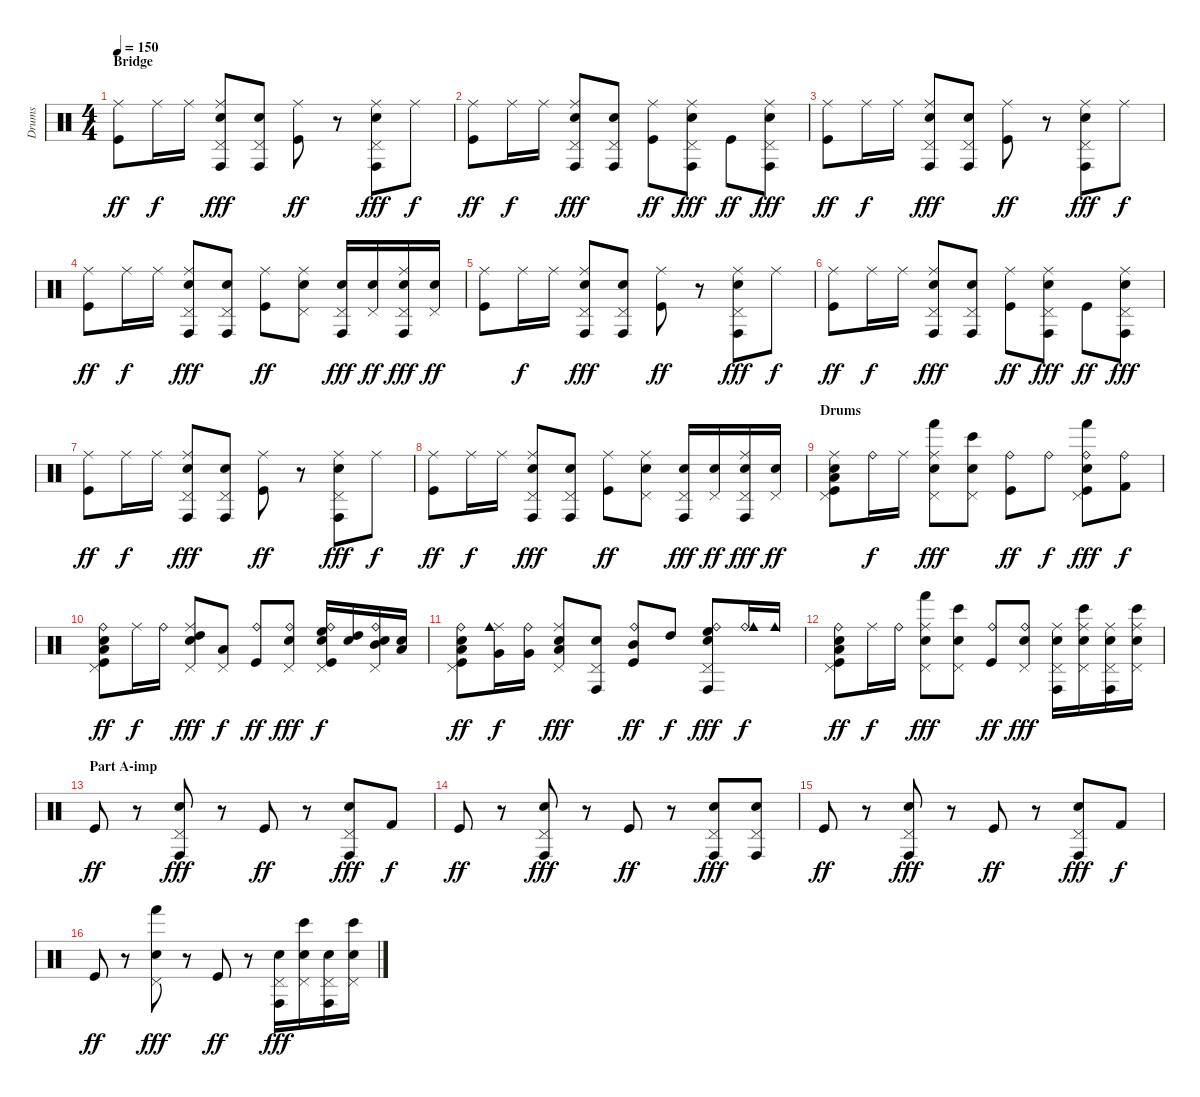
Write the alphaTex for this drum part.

\track ("Drums" "Drums") {instrument percussion}
\staff {score}
\articulation defaults
\ts (4 4)
\section ("" "Bridge")
\tempo 150
\clef neutral
\ks c
("Ride (middle)" "Kick (hit)").8{dy ff} "Ride (middle)".16{dy f} "Ride (middle)".16 ("Ride (middle)" "Pedal Hi-Hat (hit)" "Conga high (hit)" "Electric Snare (hit)").8{dy fff} ("Pedal Hi-Hat (hit)" "Conga high (hit)" "Electric Snare (hit)").8 ("Ride (middle)" "Kick (hit)").8{dy ff} r.8 ("Ride (middle)" "Pedal Hi-Hat (hit)" "Conga high (hit)" "Electric Snare (hit)").8{dy fff} "Ride (middle)".8{dy f} |
("Ride (middle)" "Kick (hit)").8{dy ff} "Ride (middle)".16{dy f} "Ride (middle)".16 ("Ride (middle)" "Pedal Hi-Hat (hit)" "Conga high (hit)" "Electric Snare (hit)").8{dy fff} ("Pedal Hi-Hat (hit)" "Conga high (hit)" "Electric Snare (hit)").8 ("Ride (middle)" "Kick (hit)").8{dy ff} ("Ride (middle)" "Pedal Hi-Hat (hit)" "Conga high (hit)" "Electric Snare (hit)").8{dy fff} "Kick (hit)".8{dy ff} ("Ride (middle)" "Pedal Hi-Hat (hit)" "Conga high (hit)" "Electric Snare (hit)").8{dy fff} |
("Ride (middle)" "Kick (hit)").8{dy ff} "Ride (middle)".16{dy f} "Ride (middle)".16 ("Ride (middle)" "Pedal Hi-Hat (hit)" "Conga high (hit)" "Electric Snare (hit)").8{dy fff} ("Pedal Hi-Hat (hit)" "Conga high (hit)" "Electric Snare (hit)").8 ("Ride (middle)" "Kick (hit)").8{dy ff} r.8 ("Ride (middle)" "Pedal Hi-Hat (hit)" "Conga high (hit)" "Electric Snare (hit)").8{dy fff} "Ride (middle)".8{dy f} |
("Ride (middle)" "Kick (hit)").8{dy ff} "Ride (middle)".16{dy f} "Ride (middle)".16 ("Ride (middle)" "Pedal Hi-Hat (hit)" "Conga high (hit)" "Electric Snare (hit)").8{dy fff} ("Pedal Hi-Hat (hit)" "Conga high (hit)" "Electric Snare (hit)").8 ("Ride (middle)" "Kick (hit)").8{dy ff} ("Ride (middle)" "Pedal Hi-Hat (hit)" "Electric Snare (hit)").8 ("Pedal Hi-Hat (hit)" "Conga high (hit)" "Electric Snare (hit)").16{dy fff} ("Pedal Hi-Hat (hit)" "Electric Snare (hit)").16{dy ff} ("Ride (middle)" "Pedal Hi-Hat (hit)" "Conga high (hit)" "Electric Snare (hit)").16{dy fff} ("Pedal Hi-Hat (hit)" "Electric Snare (hit)").16{dy ff} |
("Ride (middle)" "Kick (hit)").8 "Ride (middle)".16{dy f} "Ride (middle)".16 ("Ride (middle)" "Pedal Hi-Hat (hit)" "Conga high (hit)" "Electric Snare (hit)").8{dy fff} ("Pedal Hi-Hat (hit)" "Conga high (hit)" "Electric Snare (hit)").8 ("Ride (middle)" "Kick (hit)").8{dy ff} r.8 ("Ride (middle)" "Pedal Hi-Hat (hit)" "Conga high (hit)" "Electric Snare (hit)").8{dy fff} "Ride (middle)".8{dy f} |
("Ride (middle)" "Kick (hit)").8{dy ff} "Ride (middle)".16{dy f} "Ride (middle)".16 ("Ride (middle)" "Pedal Hi-Hat (hit)" "Conga high (hit)" "Electric Snare (hit)").8{dy fff} ("Pedal Hi-Hat (hit)" "Conga high (hit)" "Electric Snare (hit)").8 ("Ride (middle)" "Kick (hit)").8{dy ff} ("Ride (middle)" "Pedal Hi-Hat (hit)" "Conga high (hit)" "Electric Snare (hit)").8{dy fff} "Kick (hit)".8{dy ff} ("Ride (middle)" "Pedal Hi-Hat (hit)" "Conga high (hit)" "Electric Snare (hit)").8{dy fff} |
("Ride (middle)" "Kick (hit)").8{dy ff} "Ride (middle)".16{dy f} "Ride (middle)".16 ("Ride (middle)" "Pedal Hi-Hat (hit)" "Conga high (hit)" "Electric Snare (hit)").8{dy fff} ("Pedal Hi-Hat (hit)" "Conga high (hit)" "Electric Snare (hit)").8 ("Ride (middle)" "Kick (hit)").8{dy ff} r.8 ("Ride (middle)" "Pedal Hi-Hat (hit)" "Conga high (hit)" "Electric Snare (hit)").8{dy fff} "Ride (middle)".8{dy f} |
("Ride (middle)" "Kick (hit)").8{dy ff} "Ride (middle)".16{dy f} "Ride (middle)".16 ("Ride (middle)" "Pedal Hi-Hat (hit)" "Conga high (hit)" "Electric Snare (hit)").8{dy fff} ("Pedal Hi-Hat (hit)" "Conga high (hit)" "Electric Snare (hit)").8 ("Ride (middle)" "Kick (hit)").8{dy ff} ("Ride (middle)" "Pedal Hi-Hat (hit)" "Electric Snare (hit)").8 ("Pedal Hi-Hat (hit)" "Conga high (hit)" "Electric Snare (hit)").16{dy fff} ("Pedal Hi-Hat (hit)" "Electric Snare (hit)").16{dy ff} ("Ride (middle)" "Pedal Hi-Hat (hit)" "Conga high (hit)" "Electric Snare (hit)").16{dy fff} ("Pedal Hi-Hat (hit)" "Electric Snare (hit)").16{dy ff} |
\section ("" "Drums")
("Ride (middle)" "Pedal Hi-Hat (hit)" "Low Floor Tom (hit)" "Electric Snare (hit)" "Kick (hit)").8 "Ride (bell)".16{dy f} "Ride (middle)".16 ("Ride (middle)" "Pedal Hi-Hat (hit)" "Hand (hit)" "Electric Snare (hit)").8{dy fff} ("Pedal Hi-Hat (hit)" "Bongo High (hit)" "Electric Snare (hit)").8 ("Ride (bell)" "Kick (hit)").8{dy ff} "Ride (bell)".8{dy f} ("Ride (bell)" "Pedal Hi-Hat (hit)" "Hand (hit)" "Electric Snare (hit)" "Kick (hit)").8{dy fff} ("Ride (bell)" "Kick (hit) 2").8{dy f} |
("Ride (bell)" "Pedal Hi-Hat (hit)" "Low Floor Tom (hit)" "Electric Snare (hit)" "Kick (hit)").8{dy ff} "Ride (middle)".16{dy f} "Ride (bell)".16 ("Ride (middle)" "Pedal Hi-Hat (hit)" "High Tom (hit)" "Electric Snare (hit)").8{dy fff} ("Pedal Hi-Hat (hit)" "Low Tom (hit)").8{dy f} ("Ride (bell)" "Kick (hit)").8{dy ff} ("Ride (bell)" "Pedal Hi-Hat (hit)" "Electric Snare (hit)").8{dy fff} ("Ride (bell)" "Pedal Hi-Hat (hit)" "High Floor Tom (hit)" "Electric Snare (hit)" "Kick (hit)").16{dy f} ("High Tom (hit)" "Electric Snare (hit)").16 ("Ride (bell)" "Pedal Hi-Hat (hit)" "Mid Tom (hit)" "Electric Snare (hit)").16 ("Low Tom (hit)" "Electric Snare (hit)").16 |
("Ride (bell)" "Pedal Hi-Hat (hit)" "Low Floor Tom (hit)" "Electric Snare (hit)" "Kick (hit)").8{dy ff} ("Ride (middle)" "Very Low Tom (hit)" "Cowbell medium (hit)").16{dy f} ("Ride (bell)" "Very Low Tom (hit)").16 ("Ride (middle)" "Pedal Hi-Hat (hit)" "Low Tom (hit)" "Electric Snare (hit)").8{dy fff} ("Pedal Hi-Hat (hit)" "Conga high (hit)" "Electric Snare (hit)").8 ("Ride (bell)" "Mid Tom (hit)" "Kick (hit)").8{dy ff} "High Tom (hit)".8{dy f} ("Ride (bell)" "Pedal Hi-Hat (hit)" "High Floor Tom (hit)" "Conga high (hit)" "Electric Snare (hit)").8{dy fff} ("Ride (bell)" "Cowbell medium (hit)").16{dy f} "Cowbell medium (hit)".16 |
("Ride (bell)" "Pedal Hi-Hat (hit)" "Low Floor Tom (hit)" "Electric Snare (hit)" "Kick (hit)").8{dy ff} "Ride (middle)".16{dy f} "Ride (bell)".16 ("Ride (middle)" "Pedal Hi-Hat (hit)" "Hand (hit)" "Electric Snare (hit)").8{dy fff} ("Pedal Hi-Hat (hit)" "Bongo High (hit)" "Electric Snare (hit)").8 ("Ride (bell)" "Kick (hit)").8{dy ff} ("Ride (bell)" "Pedal Hi-Hat (hit)" "Electric Snare (hit)").8{dy fff} ("Ride (middle)" "Pedal Hi-Hat (hit)" "Conga high (hit)" "Electric Snare (hit)").16 ("Ride (middle)" "Pedal Hi-Hat (hit)" "Bongo High (hit)" "Electric Snare (hit)").16 ("Ride (middle)" "Pedal Hi-Hat (hit)" "Conga high (hit)" "Electric Snare (hit)").16 ("Ride (middle)" "Pedal Hi-Hat (hit)" "Bongo High (hit)" "Electric Snare (hit)").16 |
\section ("" "Part A-imp")
"Kick (hit)".8{dy ff} r.8 ("Pedal Hi-Hat (hit)" "Conga high (hit)" "Electric Snare (hit)").8{dy fff} r.8 "Kick (hit)".8{dy ff} r.8 ("Pedal Hi-Hat (hit)" "Conga high (hit)" "Electric Snare (hit)").8{dy fff} "Kick (hit) 2".8{dy f} |
"Kick (hit)".8{dy ff} r.8 ("Pedal Hi-Hat (hit)" "Conga high (hit)" "Electric Snare (hit)").8{dy fff} r.8 "Kick (hit)".8{dy ff} r.8 ("Pedal Hi-Hat (hit)" "Conga high (hit)" "Electric Snare (hit)").8{dy fff} ("Pedal Hi-Hat (hit)" "Conga high (hit)" "Electric Snare (hit)").8 |
"Kick (hit)".8{dy ff} r.8 ("Pedal Hi-Hat (hit)" "Conga high (hit)" "Electric Snare (hit)").8{dy fff} r.8 "Kick (hit)".8{dy ff} r.8 ("Pedal Hi-Hat (hit)" "Conga high (hit)" "Electric Snare (hit)").8{dy fff} "Kick (hit) 2".8{dy f} |
"Kick (hit)".8{dy ff} r.8 ("Pedal Hi-Hat (hit)" "Hand (hit)" "Electric Snare (hit)").8{dy fff} r.8 "Kick (hit)".8{dy ff} r.8 ("Pedal Hi-Hat (hit)" "Conga high (hit)" "Electric Snare (hit)").16{dy fff} ("Pedal Hi-Hat (hit)" "Bongo High (hit)" "Electric Snare (hit)").16 ("Pedal Hi-Hat (hit)" "Conga high (hit)" "Electric Snare (hit)").16 ("Pedal Hi-Hat (hit)" "Bongo High (hit)" "Electric Snare (hit)").16
